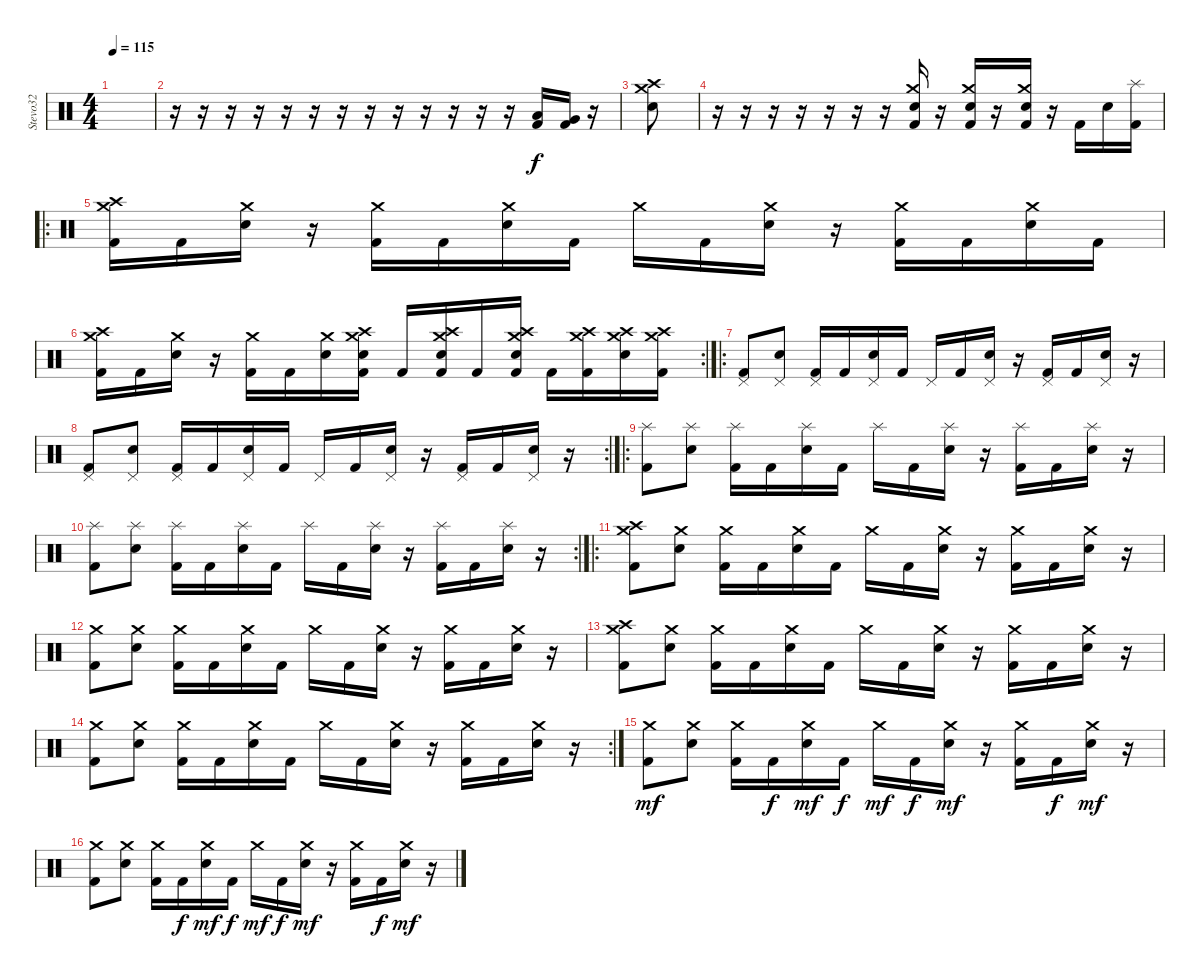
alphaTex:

\track ("Stevo32" "Stevo32") {instrument percussion}
\staff {score}
\articulation defaults
\ts (4 4)
\tempo 115
\clef neutral
\ks c
|
r.16 r.16 r.16 r.16 r.16 r.16 r.16 r.16 r.16 r.16 r.16 r.16 r.16 ("Low Tom (hit)" "Kick (hit) 2").16 ("Very Low Tom (hit)" "Kick (hit) 2").16 r.16 |
("Crash high (hit)" "Crash medium (hit)" "Electric Snare (hit)").8 |
r.16 r.16 r.16 r.16 r.16 r.16 r.16 ("Kick (hit) 2" "Crash medium (hit)" "Electric Snare (hit)").16 r.16 ("Kick (hit) 2" "Crash medium (hit)" "Electric Snare (hit)").16 r.16 ("Kick (hit) 2" "Crash medium (hit)" "Electric Snare (hit)").16 r.16 "Kick (hit) 2".16 "Electric Snare (hit)".16 ("Splash (hit)" "Kick (hit) 2").16 |
\ro
("Crash medium (hit)" "Crash high (hit)" "Kick (hit) 2").16 "Kick (hit) 2".16 ("Crash medium (hit)" "Electric Snare (hit)").16 r.16 ("Crash medium (hit)" "Kick (hit) 2").16 "Kick (hit) 2".16 ("Crash medium (hit)" "Electric Snare (hit)").16 "Kick (hit) 2".16 "Crash medium (hit)".16 "Kick (hit) 2".16 ("Crash medium (hit)" "Electric Snare (hit)").16 r.16 ("Crash medium (hit)" "Kick (hit) 2").16 "Kick (hit) 2".16 ("Crash medium (hit)" "Electric Snare (hit)").16 "Kick (hit) 2".16 |
\rc 2
("Crash medium (hit)" "Crash high (hit)" "Kick (hit) 2").16 "Kick (hit) 2".16 ("Crash medium (hit)" "Electric Snare (hit)").16 r.16 ("Crash medium (hit)" "Kick (hit) 2").16 "Kick (hit) 2".16 ("Crash medium (hit)" "Electric Snare (hit)").16 ("Crash high (hit)" "Crash medium (hit)" "Electric Snare (hit)" "Kick (hit) 2").16 "Kick (hit) 2".16 ("Crash high (hit)" "Crash medium (hit)" "Electric Snare (hit)" "Kick (hit) 2").16 "Kick (hit) 2".16 ("Crash high (hit)" "Crash medium (hit)" "Electric Snare (hit)" "Kick (hit) 2").16 "Kick (hit) 2".16 ("Crash high (hit)" "Crash medium (hit)" "Kick (hit) 2").16 ("Crash high (hit)" "Crash medium (hit)" "Electric Snare (hit)").16 ("Crash high (hit)" "Crash medium (hit)" "Kick (hit) 2").16 |
\ro
("Pedal Hi-Hat (hit)" "Kick (hit) 2").8 ("Pedal Hi-Hat (hit)" "Electric Snare (hit)").8 ("Pedal Hi-Hat (hit)" "Kick (hit) 2").16 "Kick (hit) 2".16 ("Pedal Hi-Hat (hit)" "Electric Snare (hit)").16 "Kick (hit) 2".16 "Pedal Hi-Hat (hit)".16 "Kick (hit) 2".16 ("Pedal Hi-Hat (hit)" "Electric Snare (hit)").16 r.16 ("Pedal Hi-Hat (hit)" "Kick (hit) 2").16 "Kick (hit) 2".16 ("Pedal Hi-Hat (hit)" "Electric Snare (hit)").16 r.16 |
\rc 2
("Pedal Hi-Hat (hit)" "Kick (hit) 2").8 ("Pedal Hi-Hat (hit)" "Electric Snare (hit)").8 ("Pedal Hi-Hat (hit)" "Kick (hit) 2").16 "Kick (hit) 2".16 ("Pedal Hi-Hat (hit)" "Electric Snare (hit)").16 "Kick (hit) 2".16 "Pedal Hi-Hat (hit)".16 "Kick (hit) 2".16 ("Pedal Hi-Hat (hit)" "Electric Snare (hit)").16 r.16 ("Pedal Hi-Hat (hit)" "Kick (hit) 2").16 "Kick (hit) 2".16 ("Pedal Hi-Hat (hit)" "Electric Snare (hit)").16 r.16 |
\ro
("Splash (hit)" "Kick (hit) 2").8 ("Splash (hit)" "Electric Snare (hit)").8 ("Splash (hit)" "Kick (hit) 2").16 "Kick (hit) 2".16 ("Splash (hit)" "Electric Snare (hit)").16 "Kick (hit) 2".16 "Splash (hit)".16 "Kick (hit) 2".16 ("Splash (hit)" "Electric Snare (hit)").16 r.16 ("Splash (hit)" "Kick (hit) 2").16 "Kick (hit) 2".16 ("Splash (hit)" "Electric Snare (hit)").16 r.16 |
\rc 2
("Splash (hit)" "Kick (hit) 2").8 ("Splash (hit)" "Electric Snare (hit)").8 ("Splash (hit)" "Kick (hit) 2").16 "Kick (hit) 2".16 ("Splash (hit)" "Electric Snare (hit)").16 "Kick (hit) 2".16 "Splash (hit)".16 "Kick (hit) 2".16 ("Splash (hit)" "Electric Snare (hit)").16 r.16 ("Splash (hit)" "Kick (hit) 2").16 "Kick (hit) 2".16 ("Splash (hit)" "Electric Snare (hit)").16 r.16 |
\ro
("Crash medium (hit)" "Crash high (hit)" "Kick (hit) 2").8 ("Crash medium (hit)" "Electric Snare (hit)").8 ("Crash medium (hit)" "Kick (hit) 2").16 "Kick (hit) 2".16 ("Crash medium (hit)" "Electric Snare (hit)").16 "Kick (hit) 2".16 "Crash medium (hit)".16 "Kick (hit) 2".16 ("Crash medium (hit)" "Electric Snare (hit)").16 r.16 ("Crash medium (hit)" "Kick (hit) 2").16 "Kick (hit) 2".16 ("Crash medium (hit)" "Electric Snare (hit)").16 r.16 |
("Crash medium (hit)" "Kick (hit) 2").8 ("Crash medium (hit)" "Electric Snare (hit)").8 ("Crash medium (hit)" "Kick (hit) 2").16 "Kick (hit) 2".16 ("Crash medium (hit)" "Electric Snare (hit)").16 "Kick (hit) 2".16 "Crash medium (hit)".16 "Kick (hit) 2".16 ("Crash medium (hit)" "Electric Snare (hit)").16 r.16 ("Crash medium (hit)" "Kick (hit) 2").16 "Kick (hit) 2".16 ("Crash medium (hit)" "Electric Snare (hit)").16 r.16 |
("Crash medium (hit)" "Crash high (hit)" "Kick (hit) 2").8 ("Crash medium (hit)" "Electric Snare (hit)").8 ("Crash medium (hit)" "Kick (hit) 2").16 "Kick (hit) 2".16 ("Crash medium (hit)" "Electric Snare (hit)").16 "Kick (hit) 2".16 "Crash medium (hit)".16 "Kick (hit) 2".16 ("Crash medium (hit)" "Electric Snare (hit)").16 r.16 ("Crash medium (hit)" "Kick (hit) 2").16 "Kick (hit) 2".16 ("Crash medium (hit)" "Electric Snare (hit)").16 r.16 |
\rc 2
("Crash medium (hit)" "Kick (hit) 2").8 ("Crash medium (hit)" "Electric Snare (hit)").8 ("Crash medium (hit)" "Kick (hit) 2").16 "Kick (hit) 2".16 ("Crash medium (hit)" "Electric Snare (hit)").16 "Kick (hit) 2".16 "Crash medium (hit)".16 "Kick (hit) 2".16 ("Crash medium (hit)" "Electric Snare (hit)").16 r.16 ("Crash medium (hit)" "Kick (hit) 2").16 "Kick (hit) 2".16 ("Crash medium (hit)" "Electric Snare (hit)").16 r.16 |
("Crash medium (hit)" "Kick (hit) 2").8{dy mf} ("Crash medium (hit)" "Electric Snare (hit)").8 ("Crash medium (hit)" "Kick (hit) 2").16 "Kick (hit) 2".16{dy f} ("Crash medium (hit)" "Electric Snare (hit)").16{dy mf} "Kick (hit) 2".16{dy f} "Crash medium (hit)".16{dy mf} "Kick (hit) 2".16{dy f} ("Crash medium (hit)" "Electric Snare (hit)").16{dy mf} r.16 ("Crash medium (hit)" "Kick (hit) 2").16 "Kick (hit) 2".16{dy f} ("Crash medium (hit)" "Electric Snare (hit)").16{dy mf} r.16 |
("Crash medium (hit)" "Kick (hit) 2").8 ("Crash medium (hit)" "Electric Snare (hit)").8 ("Crash medium (hit)" "Kick (hit) 2").16 "Kick (hit) 2".16{dy f} ("Crash medium (hit)" "Electric Snare (hit)").16{dy mf} "Kick (hit) 2".16{dy f} "Crash medium (hit)".16{dy mf} "Kick (hit) 2".16{dy f} ("Crash medium (hit)" "Electric Snare (hit)").16{dy mf} r.16 ("Crash medium (hit)" "Kick (hit) 2").16 "Kick (hit) 2".16{dy f} ("Crash medium (hit)" "Electric Snare (hit)").16{dy mf} r.16
